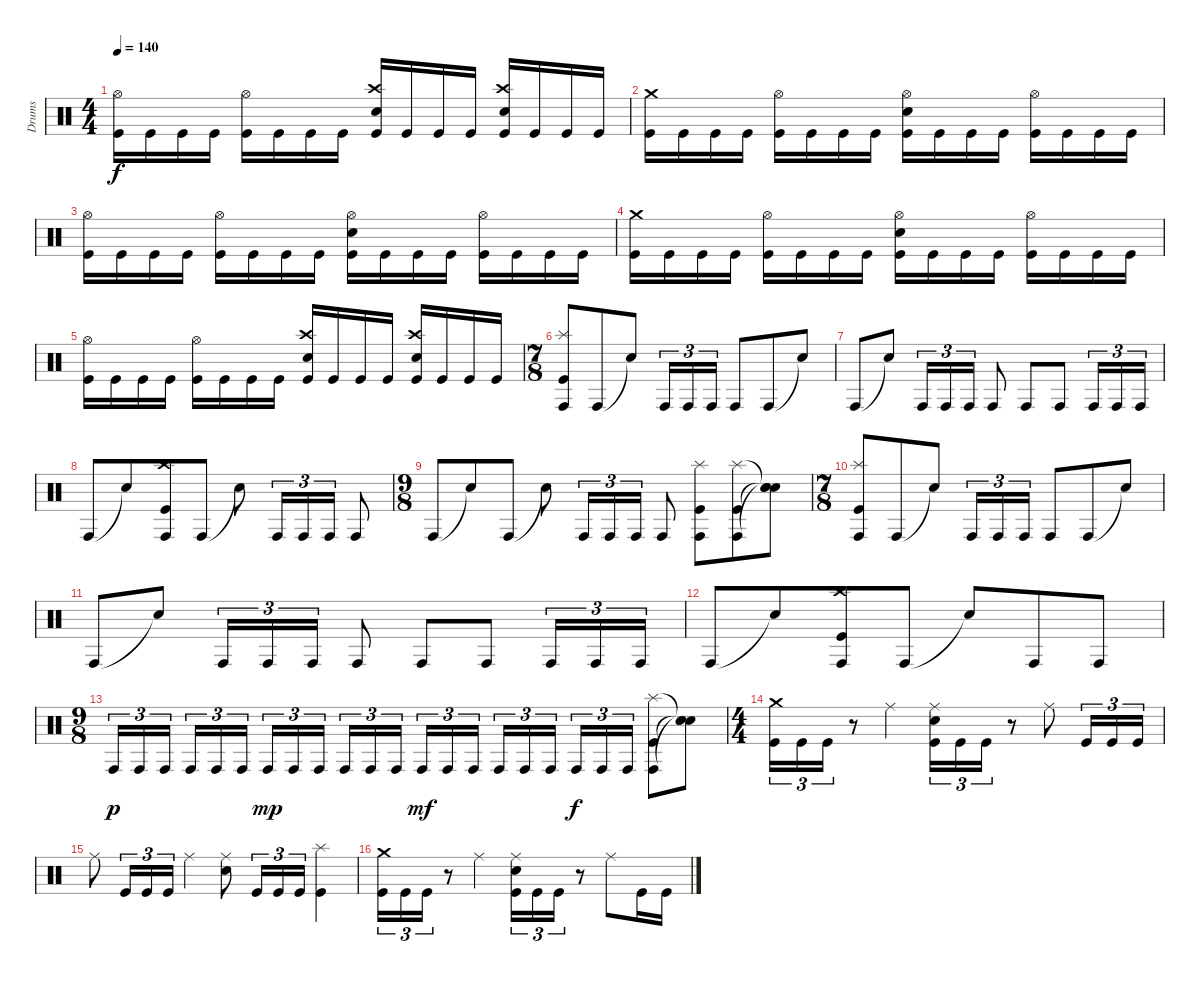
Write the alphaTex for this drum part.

\track ("Drums" "Drums") {instrument percussion}
\staff {score}
\articulation defaults
\ts (4 4)
\tempo 140
\clef neutral
\ks c
("Hi-Hat (open)" "Kick (hit)").16{dy f} "Kick (hit)".16 "Kick (hit)".16 "Kick (hit)".16 ("Hi-Hat (open)" "Kick (hit)").16 "Kick (hit)".16 "Kick (hit)".16 "Kick (hit)".16 ("Crash high (hit)" "Electric Snare (hit)" "Kick (hit)").16 "Kick (hit)".16 "Kick (hit)".16 "Kick (hit)".16 ("Crash high (hit)" "Electric Snare (hit)" "Kick (hit)").16 "Kick (hit)".16 "Kick (hit)".16 "Kick (hit)".16 |
("Crash medium (hit)" "Kick (hit)").16 "Kick (hit)".16 "Kick (hit)".16 "Kick (hit)".16 ("Hi-Hat (open)" "Kick (hit)").16 "Kick (hit)".16 "Kick (hit)".16 "Kick (hit)".16 ("Hi-Hat (open)" "Electric Snare (hit)" "Kick (hit)").16 "Kick (hit)".16 "Kick (hit)".16 "Kick (hit)".16 ("Hi-Hat (open)" "Kick (hit)").16 "Kick (hit)".16 "Kick (hit)".16 "Kick (hit)".16 |
("Hi-Hat (open)" "Kick (hit)").16 "Kick (hit)".16 "Kick (hit)".16 "Kick (hit)".16 ("Hi-Hat (open)" "Kick (hit)").16 "Kick (hit)".16 "Kick (hit)".16 "Kick (hit)".16 ("Hi-Hat (open)" "Electric Snare (hit)" "Kick (hit)").16 "Kick (hit)".16 "Kick (hit)".16 "Kick (hit)".16 ("Hi-Hat (open)" "Kick (hit)").16 "Kick (hit)".16 "Kick (hit)".16 "Kick (hit)".16 |
("Crash medium (hit)" "Kick (hit)").16 "Kick (hit)".16 "Kick (hit)".16 "Kick (hit)".16 ("Hi-Hat (open)" "Kick (hit)").16 "Kick (hit)".16 "Kick (hit)".16 "Kick (hit)".16 ("Hi-Hat (open)" "Electric Snare (hit)" "Kick (hit)").16 "Kick (hit)".16 "Kick (hit)".16 "Kick (hit)".16 ("Hi-Hat (open)" "Kick (hit)").16 "Kick (hit)".16 "Kick (hit)".16 "Kick (hit)".16 |
("Hi-Hat (open)" "Kick (hit)").16 "Kick (hit)".16 "Kick (hit)".16 "Kick (hit)".16 ("Hi-Hat (open)" "Kick (hit)").16 "Kick (hit)".16 "Kick (hit)".16 "Kick (hit)".16 ("Crash high (hit)" "Electric Snare (hit)" "Kick (hit)").16 "Kick (hit)".16 "Kick (hit)".16 "Kick (hit)".16 ("Crash high (hit)" "Electric Snare (hit)" "Kick (hit)").16 "Kick (hit)".16 "Kick (hit)".16 "Kick (hit)".16 |
\ts (7 8)
("Conga high (hit)" "Splash (hit)" "Kick (hit)").8 "Conga high (hit)".8 "Snare (hit)"{t}.8 "Conga high (hit)".16{tu (3 2)} "Conga high (hit)".16{tu (3 2)} "Conga high (hit)".16{tu (3 2)} "Conga high (hit)".8 "Conga high (hit)".8 "Snare (hit)"{t}.8 |
"Conga high (hit)".8 "Snare (hit)"{t}.8 "Conga high (hit)".16{tu (3 2)} "Conga high (hit)".16{tu (3 2)} "Conga high (hit)".16{tu (3 2)} "Conga high (hit)".8 "Conga high (hit)".8 "Conga high (hit)".8 "Conga high (hit)".16{tu (3 2)} "Conga high (hit)".16{tu (3 2)} "Conga high (hit)".16{tu (3 2)} |
"Conga high (hit)".8 "Snare (hit)"{t}.8 ("Conga high (hit)" "Crash high (hit)" "Kick (hit)").8 "Conga high (hit)".8 "Snare (hit)"{t}.8 "Conga high (hit)".16{tu (3 2)} "Conga high (hit)".16{tu (3 2)} "Conga high (hit)".16{tu (3 2)} "Conga high (hit)".8 |
\ts (9 8)
"Conga high (hit)".8 "Snare (hit)"{t}.8 "Conga high (hit)".8 "Snare (hit)"{t}.8 "Conga high (hit)".16{tu (3 2)} "Conga high (hit)".16{tu (3 2)} "Conga high (hit)".16{tu (3 2)} "Conga high (hit)".8 ("Conga high (hit)" "Splash (hit)" "Kick (hit)").8 ("Conga high (hit)" "Splash (hit)" "Kick (hit)").8 ("Snare (hit)"{t} "Snare (hit)"{t} "Snare (hit)"{t}).8 |
\ts (7 8)
("Conga high (hit)" "Splash (hit)" "Kick (hit)").8 "Conga high (hit)".8 "Snare (hit)"{t}.8 "Conga high (hit)".16{tu (3 2)} "Conga high (hit)".16{tu (3 2)} "Conga high (hit)".16{tu (3 2)} "Conga high (hit)".8 "Conga high (hit)".8 "Snare (hit)"{t}.8 |
"Conga high (hit)".8 "Snare (hit)"{t}.8 "Conga high (hit)".16{tu (3 2)} "Conga high (hit)".16{tu (3 2)} "Conga high (hit)".16{tu (3 2)} "Conga high (hit)".8 "Conga high (hit)".8 "Conga high (hit)".8 "Conga high (hit)".16{tu (3 2)} "Conga high (hit)".16{tu (3 2)} "Conga high (hit)".16{tu (3 2)} |
"Conga high (hit)".8 "Snare (hit)"{t}.8 ("Conga high (hit)" "Crash high (hit)" "Kick (hit)").8 "Conga high (hit)".8 "Snare (hit)"{t}.8 "Conga high (hit)".8 "Conga high (hit)".8 |
\ts (9 8)
"Conga high (hit)".16{tu (3 2) dy p} "Conga high (hit)".16{tu (3 2)} "Conga high (hit)".16{tu (3 2)} "Conga high (hit)".16{tu (3 2)} "Conga high (hit)".16{tu (3 2)} "Conga high (hit)".16{tu (3 2)} "Conga high (hit)".16{tu (3 2) dy mp} "Conga high (hit)".16{tu (3 2)} "Conga high (hit)".16{tu (3 2)} "Conga high (hit)".16{tu (3 2)} "Conga high (hit)".16{tu (3 2)} "Conga high (hit)".16{tu (3 2)} "Conga high (hit)".16{tu (3 2) dy mf} "Conga high (hit)".16{tu (3 2)} "Conga high (hit)".16{tu (3 2)} "Conga high (hit)".16{tu (3 2)} "Conga high (hit)".16{tu (3 2)} "Conga high (hit)".16{tu (3 2)} "Conga high (hit)".16{tu (3 2) dy f} "Conga high (hit)".16{tu (3 2)} "Conga high (hit)".16{tu (3 2)} ("Conga high (hit)" "Splash (hit)" "Kick (hit)").8 ("Snare (hit)"{t} "Snare (hit)"{t} "Snare (hit)"{t}).8 |
\ts (4 4)
("Crash medium (hit)" "Kick (hit)").16{tu (3 2)} "Kick (hit)".16{tu (3 2)} "Kick (hit)".16{tu (3 2)} r.8 "Ride (middle)".4 ("Ride (middle)" "Electric Snare (hit)" "Kick (hit)").16{tu (3 2)} "Kick (hit)".16{tu (3 2)} "Kick (hit)".16{tu (3 2)} r.8 "Ride (middle)".8 "Kick (hit)".16{tu (3 2)} "Kick (hit)".16{tu (3 2)} "Kick (hit)".16{tu (3 2)} |
"Ride (middle)".8 "Kick (hit)".16{tu (3 2)} "Kick (hit)".16{tu (3 2)} "Kick (hit)".16{tu (3 2)} "Ride (middle)".4 ("Ride (middle)" "Electric Snare (hit)").8 "Kick (hit)".16{tu (3 2)} "Kick (hit)".16{tu (3 2)} "Kick (hit)".16{tu (3 2)} ("Splash (hit)" "Kick (hit)").4 |
("Crash medium (hit)" "Kick (hit)").16{tu (3 2)} "Kick (hit)".16{tu (3 2)} "Kick (hit)".16{tu (3 2)} r.8 "Ride (middle)".4 ("Ride (middle)" "Electric Snare (hit)" "Kick (hit)").16{tu (3 2)} "Kick (hit)".16{tu (3 2)} "Kick (hit)".16{tu (3 2)} r.8 "Ride (middle)".8 "Kick (hit)".16 "Kick (hit)".16
